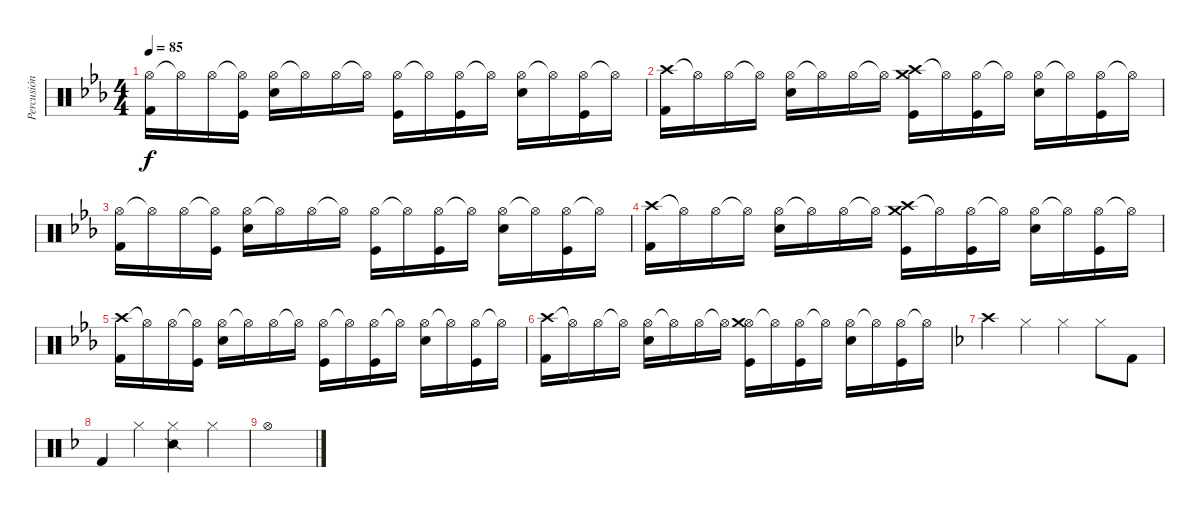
\track ("Percusión" "Percusión") {instrument percussion}
\staff {score}
\articulation defaults
\ts (4 4)
\tempo 85
\clef neutral
\ks eb
("Hi-Hat (open)" "Kick (hit) 2").16{dy f} "Hi-Hat (open)"{t}.16 "Hi-Hat (open)".16 ("Hi-Hat (open)"{t} "Kick (hit)").16 ("Hi-Hat (open)" "Snare (hit) 2").16 "Hi-Hat (open)"{t}.16 "Hi-Hat (open)".16 "Hi-Hat (open)"{t}.16 ("Hi-Hat (open)" "Kick (hit)").16 "Hi-Hat (open)"{t}.16 ("Hi-Hat (open)" "Kick (hit)").16 "Hi-Hat (open)"{t}.16 ("Hi-Hat (open)" "Snare (hit) 2").16 "Hi-Hat (open)"{t}.16 ("Hi-Hat (open)" "Kick (hit)").16 "Hi-Hat (open)"{t}.16 |
("Crash high (hit)" "Kick (hit) 2").16 "Hi-Hat (open)"{t}.16 "Hi-Hat (open)".16 "Hi-Hat (open)"{t}.16 ("Hi-Hat (open)" "Snare (hit) 2").16 "Hi-Hat (open)"{t}.16 "Hi-Hat (open)".16 "Hi-Hat (open)"{t}.16 ("Crash high (hit)" "Crash medium (hit)" "Kick (hit)").16 "Hi-Hat (open)"{t}.16 ("Hi-Hat (open)" "Kick (hit)").16 "Hi-Hat (open)"{t}.16 ("Hi-Hat (open)" "Snare (hit) 2").16 "Hi-Hat (open)"{t}.16 ("Hi-Hat (open)" "Kick (hit)").16 "Hi-Hat (open)"{t}.16 |
("Hi-Hat (open)" "Kick (hit) 2").16 "Hi-Hat (open)"{t}.16 "Hi-Hat (open)".16 ("Hi-Hat (open)"{t} "Kick (hit)").16 ("Hi-Hat (open)" "Snare (hit) 2").16 "Hi-Hat (open)"{t}.16 "Hi-Hat (open)".16 "Hi-Hat (open)"{t}.16 ("Hi-Hat (open)" "Kick (hit)").16 "Hi-Hat (open)"{t}.16 ("Hi-Hat (open)" "Kick (hit)").16 "Hi-Hat (open)"{t}.16 ("Hi-Hat (open)" "Snare (hit) 2").16 "Hi-Hat (open)"{t}.16 ("Hi-Hat (open)" "Kick (hit)").16 "Hi-Hat (open)"{t}.16 |
("Crash high (hit)" "Kick (hit) 2").16 "Hi-Hat (open)"{t}.16 "Hi-Hat (open)".16 "Hi-Hat (open)"{t}.16 ("Hi-Hat (open)" "Snare (hit) 2").16 "Hi-Hat (open)"{t}.16 "Hi-Hat (open)".16 "Hi-Hat (open)"{t}.16 ("Crash high (hit)" "Crash medium (hit)" "Kick (hit)").16 "Hi-Hat (open)"{t}.16 ("Hi-Hat (open)" "Kick (hit)").16 "Hi-Hat (open)"{t}.16 ("Hi-Hat (open)" "Snare (hit) 2").16 "Hi-Hat (open)"{t}.16 ("Hi-Hat (open)" "Kick (hit)").16 "Hi-Hat (open)"{t}.16 |
("Crash high (hit)" "Kick (hit) 2").16 "Hi-Hat (open)"{t}.16 "Hi-Hat (open)".16 ("Hi-Hat (open)"{t} "Kick (hit)").16 ("Hi-Hat (open)" "Snare (hit) 2").16 "Hi-Hat (open)"{t}.16 "Hi-Hat (open)".16 "Hi-Hat (open)"{t}.16 ("Hi-Hat (open)" "Kick (hit)").16 "Hi-Hat (open)"{t}.16 ("Hi-Hat (open)" "Kick (hit)").16 "Hi-Hat (open)"{t}.16 ("Hi-Hat (open)" "Snare (hit) 2").16 "Hi-Hat (open)"{t}.16 ("Hi-Hat (open)" "Kick (hit)").16 "Hi-Hat (open)"{t}.16 |
("Crash high (hit)" "Kick (hit) 2").16 "Hi-Hat (open)"{t}.16 "Hi-Hat (open)".16 "Hi-Hat (open)"{t}.16 ("Hi-Hat (open)" "Snare (hit) 2").16 "Hi-Hat (open)"{t}.16 "Hi-Hat (open)".16 "Hi-Hat (open)"{t}.16 ("Hi-Hat (open)" "Crash medium (hit)" "Kick (hit)").16 "Hi-Hat (open)"{t}.16 ("Hi-Hat (open)" "Kick (hit)").16 "Hi-Hat (open)"{t}.16 ("Hi-Hat (open)" "Snare (hit) 2").16 "Hi-Hat (open)"{t}.16 ("Hi-Hat (open)" "Kick (hit)").16 "Hi-Hat (open)"{t}.16 |
\ks f "Crash high (hit)".4 "Hi-Hat (closed)".4 "Hi-Hat (closed)".4 "Hi-Hat (closed)".8 "Kick (hit) 2".8
|
"Kick (hit) 2".4 "Hi-Hat (closed)".4 ("Hi-Hat (closed)" "Snare (side stick) 2").4 "Hi-Hat (closed)".4 |
"Hi-Hat (open)".1
